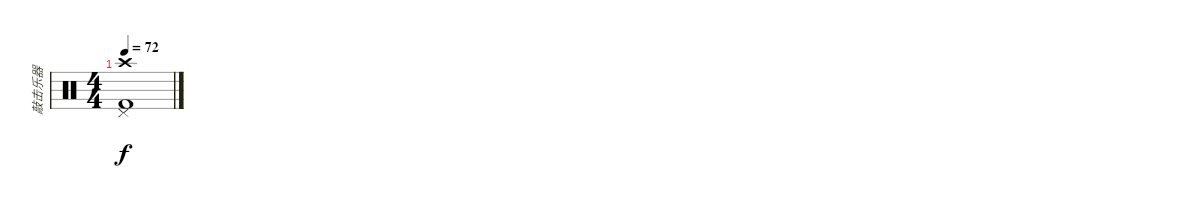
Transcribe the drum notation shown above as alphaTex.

\track ("敲击乐器" "敲击乐器") {instrument percussion}
\staff {score}
\articulation defaults
\ts (4 4)
\tempo 72
\clef neutral
\ks c
("Pedal Hi-Hat (hit)" "Kick (hit) 2" "Crash high (hit)").1{dy f}
